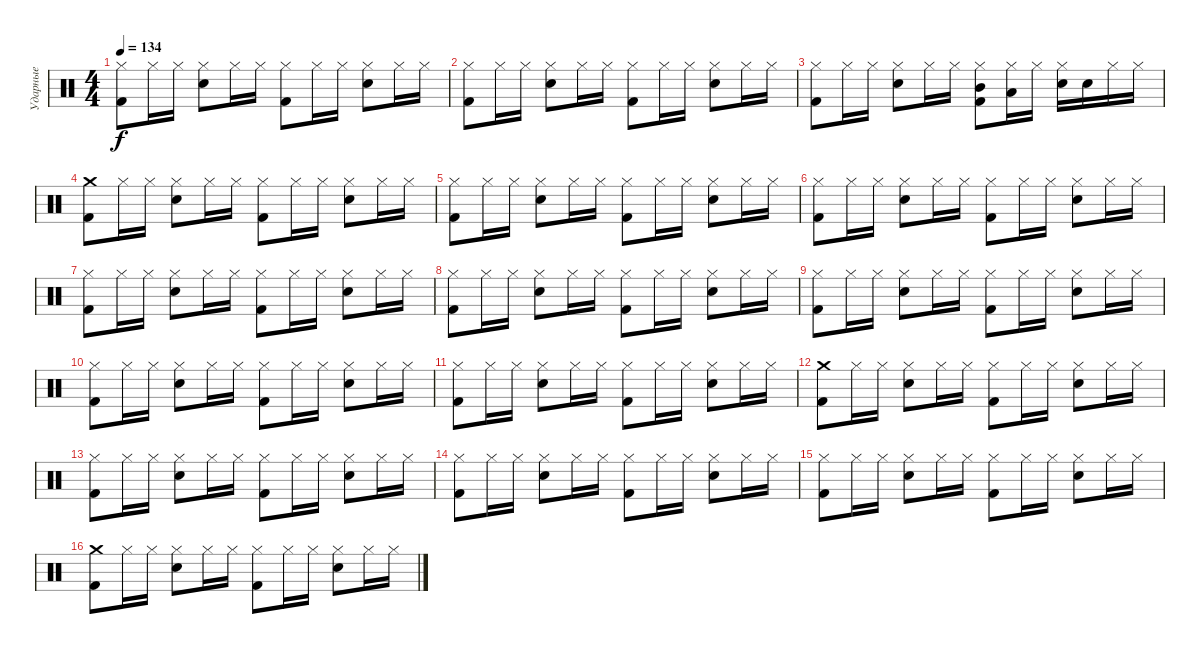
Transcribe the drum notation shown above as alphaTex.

\track ("Ударные" "Ударные") {instrument percussion}
\staff {score}
\articulation defaults
\ts (4 4)
\tempo 134
\clef neutral
\ks c
("Hi-Hat (closed)" "Kick (hit) 2").8{dy f} "Hi-Hat (closed)".16 "Hi-Hat (closed)".16 ("Hi-Hat (closed)" "Snare (hit) 2").8 "Hi-Hat (closed)".16 "Hi-Hat (closed)".16 ("Hi-Hat (closed)" "Kick (hit) 2").8 "Hi-Hat (closed)".16 "Hi-Hat (closed)".16 ("Hi-Hat (closed)" "Snare (hit) 2").8 "Hi-Hat (closed)".16 "Hi-Hat (closed)".16 |
("Hi-Hat (closed)" "Kick (hit) 2").8 "Hi-Hat (closed)".16 "Hi-Hat (closed)".16 ("Hi-Hat (closed)" "Snare (hit) 2").8 "Hi-Hat (closed)".16 "Hi-Hat (closed)".16 ("Hi-Hat (closed)" "Kick (hit) 2").8 "Hi-Hat (closed)".16 "Hi-Hat (closed)".16 ("Hi-Hat (closed)" "Snare (hit) 2").8 "Hi-Hat (closed)".16 "Hi-Hat (closed)".16 |
("Hi-Hat (closed)" "Kick (hit) 2").8 "Hi-Hat (closed)".16 "Hi-Hat (closed)".16 ("Hi-Hat (closed)" "Snare (hit) 2").8 "Hi-Hat (closed)".16 "Hi-Hat (closed)".16 ("Hi-Hat (closed)" "Mid Tom (hit)" "Kick (hit) 2").8 ("Hi-Hat (closed)" "Low Tom (hit)").16 "Hi-Hat (closed)".16 ("Hi-Hat (closed)" "Snare (hit) 2").16 "Snare (hit) 2".16 "Hi-Hat (closed)".16 "Hi-Hat (closed)".16 |
("Crash medium (hit)" "Kick (hit) 2").8 "Hi-Hat (closed)".16 "Hi-Hat (closed)".16 ("Hi-Hat (closed)" "Snare (hit) 2").8 "Hi-Hat (closed)".16 "Hi-Hat (closed)".16 ("Hi-Hat (closed)" "Kick (hit) 2").8 "Hi-Hat (closed)".16 "Hi-Hat (closed)".16 ("Hi-Hat (closed)" "Snare (hit) 2").8 "Hi-Hat (closed)".16 "Hi-Hat (closed)".16 |
("Hi-Hat (closed)" "Kick (hit) 2").8 "Hi-Hat (closed)".16 "Hi-Hat (closed)".16 ("Hi-Hat (closed)" "Snare (hit) 2").8 "Hi-Hat (closed)".16 "Hi-Hat (closed)".16 ("Hi-Hat (closed)" "Kick (hit) 2").8 "Hi-Hat (closed)".16 "Hi-Hat (closed)".16 ("Hi-Hat (closed)" "Snare (hit) 2").8 "Hi-Hat (closed)".16 "Hi-Hat (closed)".16 |
("Hi-Hat (closed)" "Kick (hit) 2").8 "Hi-Hat (closed)".16 "Hi-Hat (closed)".16 ("Hi-Hat (closed)" "Snare (hit) 2").8 "Hi-Hat (closed)".16 "Hi-Hat (closed)".16 ("Hi-Hat (closed)" "Kick (hit) 2").8 "Hi-Hat (closed)".16 "Hi-Hat (closed)".16 ("Hi-Hat (closed)" "Snare (hit) 2").8 "Hi-Hat (closed)".16 "Hi-Hat (closed)".16 |
("Hi-Hat (closed)" "Kick (hit) 2").8 "Hi-Hat (closed)".16 "Hi-Hat (closed)".16 ("Hi-Hat (closed)" "Snare (hit) 2").8 "Hi-Hat (closed)".16 "Hi-Hat (closed)".16 ("Hi-Hat (closed)" "Kick (hit) 2").8 "Hi-Hat (closed)".16 "Hi-Hat (closed)".16 ("Hi-Hat (closed)" "Snare (hit) 2").8 "Hi-Hat (closed)".16 "Hi-Hat (closed)".16 |
("Hi-Hat (closed)" "Kick (hit) 2").8 "Hi-Hat (closed)".16 "Hi-Hat (closed)".16 ("Hi-Hat (closed)" "Snare (hit) 2").8 "Hi-Hat (closed)".16 "Hi-Hat (closed)".16 ("Hi-Hat (closed)" "Kick (hit) 2").8 "Hi-Hat (closed)".16 "Hi-Hat (closed)".16 ("Hi-Hat (closed)" "Snare (hit) 2").8 "Hi-Hat (closed)".16 "Hi-Hat (closed)".16 |
("Hi-Hat (closed)" "Kick (hit) 2").8 "Hi-Hat (closed)".16 "Hi-Hat (closed)".16 ("Hi-Hat (closed)" "Snare (hit) 2").8 "Hi-Hat (closed)".16 "Hi-Hat (closed)".16 ("Hi-Hat (closed)" "Kick (hit) 2").8 "Hi-Hat (closed)".16 "Hi-Hat (closed)".16 ("Hi-Hat (closed)" "Snare (hit) 2").8 "Hi-Hat (closed)".16 "Hi-Hat (closed)".16 |
("Hi-Hat (closed)" "Kick (hit) 2").8 "Hi-Hat (closed)".16 "Hi-Hat (closed)".16 ("Hi-Hat (closed)" "Snare (hit) 2").8 "Hi-Hat (closed)".16 "Hi-Hat (closed)".16 ("Hi-Hat (closed)" "Kick (hit) 2").8 "Hi-Hat (closed)".16 "Hi-Hat (closed)".16 ("Hi-Hat (closed)" "Snare (hit) 2").8 "Hi-Hat (closed)".16 "Hi-Hat (closed)".16 |
("Hi-Hat (closed)" "Kick (hit) 2").8 "Hi-Hat (closed)".16 "Hi-Hat (closed)".16 ("Hi-Hat (closed)" "Snare (hit) 2").8 "Hi-Hat (closed)".16 "Hi-Hat (closed)".16 ("Hi-Hat (closed)" "Kick (hit) 2").8 "Hi-Hat (closed)".16 "Hi-Hat (closed)".16 ("Hi-Hat (closed)" "Snare (hit) 2").8 "Hi-Hat (closed)".16 "Hi-Hat (closed)".16 |
("Crash medium (hit)" "Kick (hit) 2").8 "Hi-Hat (closed)".16 "Hi-Hat (closed)".16 ("Hi-Hat (closed)" "Snare (hit) 2").8 "Hi-Hat (closed)".16 "Hi-Hat (closed)".16 ("Hi-Hat (closed)" "Kick (hit) 2").8 "Hi-Hat (closed)".16 "Hi-Hat (closed)".16 ("Hi-Hat (closed)" "Snare (hit) 2").8 "Hi-Hat (closed)".16 "Hi-Hat (closed)".16 |
("Hi-Hat (closed)" "Kick (hit) 2").8 "Hi-Hat (closed)".16 "Hi-Hat (closed)".16 ("Hi-Hat (closed)" "Snare (hit) 2").8 "Hi-Hat (closed)".16 "Hi-Hat (closed)".16 ("Hi-Hat (closed)" "Kick (hit) 2").8 "Hi-Hat (closed)".16 "Hi-Hat (closed)".16 ("Hi-Hat (closed)" "Snare (hit) 2").8 "Hi-Hat (closed)".16 "Hi-Hat (closed)".16 |
("Hi-Hat (closed)" "Kick (hit) 2").8 "Hi-Hat (closed)".16 "Hi-Hat (closed)".16 ("Hi-Hat (closed)" "Snare (hit) 2").8 "Hi-Hat (closed)".16 "Hi-Hat (closed)".16 ("Hi-Hat (closed)" "Kick (hit) 2").8 "Hi-Hat (closed)".16 "Hi-Hat (closed)".16 ("Hi-Hat (closed)" "Snare (hit) 2").8 "Hi-Hat (closed)".16 "Hi-Hat (closed)".16 |
("Hi-Hat (closed)" "Kick (hit) 2").8 "Hi-Hat (closed)".16 "Hi-Hat (closed)".16 ("Hi-Hat (closed)" "Snare (hit) 2").8 "Hi-Hat (closed)".16 "Hi-Hat (closed)".16 ("Hi-Hat (closed)" "Kick (hit) 2").8 "Hi-Hat (closed)".16 "Hi-Hat (closed)".16 ("Hi-Hat (closed)" "Snare (hit) 2").8 "Hi-Hat (closed)".16 "Hi-Hat (closed)".16 |
("Crash medium (hit)" "Kick (hit) 2").8 "Hi-Hat (closed)".16 "Hi-Hat (closed)".16 ("Hi-Hat (closed)" "Snare (hit) 2").8 "Hi-Hat (closed)".16 "Hi-Hat (closed)".16 ("Hi-Hat (closed)" "Kick (hit) 2").8 "Hi-Hat (closed)".16 "Hi-Hat (closed)".16 ("Hi-Hat (closed)" "Snare (hit) 2").8 "Hi-Hat (closed)".16 "Hi-Hat (closed)".16
